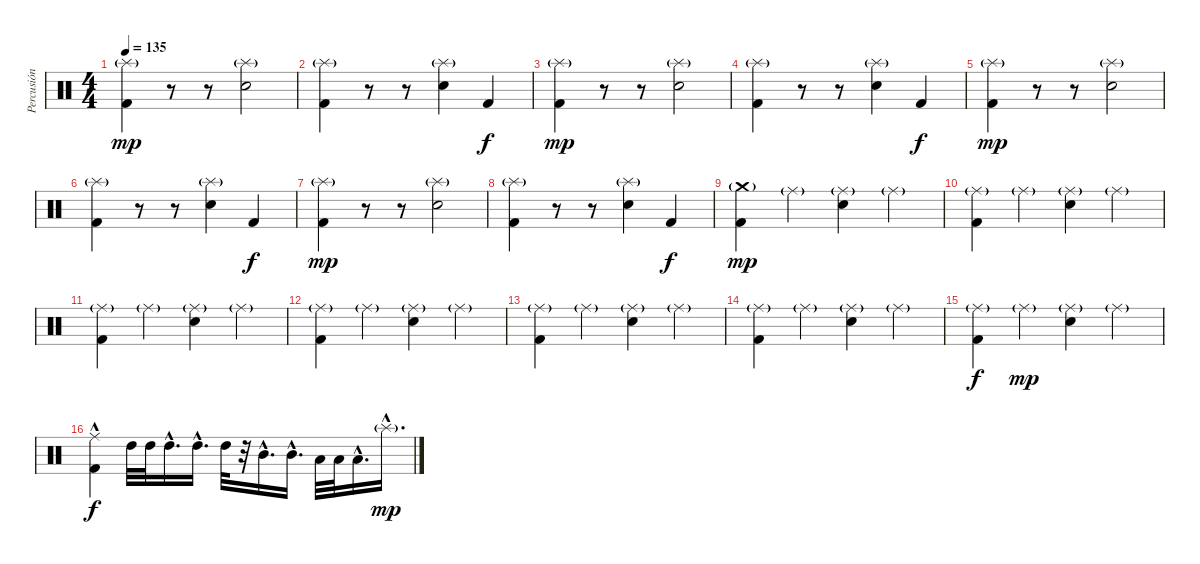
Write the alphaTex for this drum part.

\track ("Percusión" "Percusión") {instrument percussion}
\staff {score}
\articulation defaults
\ts (4 4)
\tempo 135
\clef neutral
\ks c
("Kick (hit) 2" "Splash (hit)"{g}).4{dy mp} r.8 r.8 ("Snare (hit) 2" "Splash (hit)"{g}).2 |
("Kick (hit) 2" "Splash (hit)"{g}).4 r.8 r.8 ("Snare (hit) 2" "Splash (hit)"{g}).4 "Kick (hit) 2".4{dy f} |
("Kick (hit) 2" "Splash (hit)"{g}).4{dy mp} r.8 r.8 ("Snare (hit) 2" "Splash (hit)"{g}).2 |
("Kick (hit) 2" "Splash (hit)"{g}).4 r.8 r.8 ("Snare (hit) 2" "Splash (hit)"{g}).4 "Kick (hit) 2".4{dy f} |
("Kick (hit) 2" "Splash (hit)"{g}).4{dy mp} r.8 r.8 ("Snare (hit) 2" "Splash (hit)"{g}).2 |
("Kick (hit) 2" "Splash (hit)"{g}).4 r.8 r.8 ("Snare (hit) 2" "Splash (hit)"{g}).4 "Kick (hit) 2".4{dy f} |
("Kick (hit) 2" "Splash (hit)"{g}).4{dy mp} r.8 r.8 ("Snare (hit) 2" "Splash (hit)"{g}).2 |
("Kick (hit) 2" "Splash (hit)"{g}).4 r.8 r.8 ("Snare (hit) 2" "Splash (hit)"{g}).4 "Kick (hit) 2".4{dy f} |
("Kick (hit) 2" "Crash medium (hit)"{g}).4{dy mp} "Ride (middle)"{g}.4 ("Snare (hit) 2" "Ride (middle)"{g}).4 "Ride (middle)"{g}.4 |
("Kick (hit) 2" "Ride (middle)"{g}).4 "Ride (middle)"{g}.4 ("Snare (hit) 2" "Ride (middle)"{g}).4 "Ride (middle)"{g}.4 |
("Kick (hit) 2" "Ride (middle)"{g}).4 "Ride (middle)"{g}.4 ("Snare (hit) 2" "Ride (middle)"{g}).4 "Ride (middle)"{g}.4 |
("Kick (hit) 2" "Ride (middle)"{g}).4 "Ride (middle)"{g}.4 ("Snare (hit) 2" "Ride (middle)"{g}).4 "Ride (middle)"{g}.4 |
("Kick (hit) 2" "Ride (middle)"{g}).4 "Ride (middle)"{g}.4 ("Snare (hit) 2" "Ride (middle)"{g}).4 "Ride (middle)"{g}.4 |
("Kick (hit) 2" "Ride (middle)"{g}).4 "Ride (middle)"{g}.4 ("Snare (hit) 2" "Ride (middle)"{g}).4 "Ride (middle)"{g}.4 |
("Kick (hit) 2" "Ride (middle)"{g}).4{dy f} "Ride (middle)"{g}.4{dy mp} ("Snare (hit) 2" "Ride (middle)"{g}).4 "Ride (middle)"{g}.4 |
("Kick (hit) 2"{hac} "Ride (middle)").4{dy f} "High Tom (hit)".32 "High Tom (hit)".32 "High Tom (hit)"{hac}.16{d} "High Tom (hit)"{hac}.16{d} "High Tom (hit)".32 r.32 "Mid Tom (hit)"{hac}.16{d} "Mid Tom (hit)"{hac}.16{d} "Low Tom (hit)".32 "Low Tom (hit)".32 "Low Tom (hit)"{hac}.16{d} "Splash (hit)"{g hac}.16{d dy mp}
